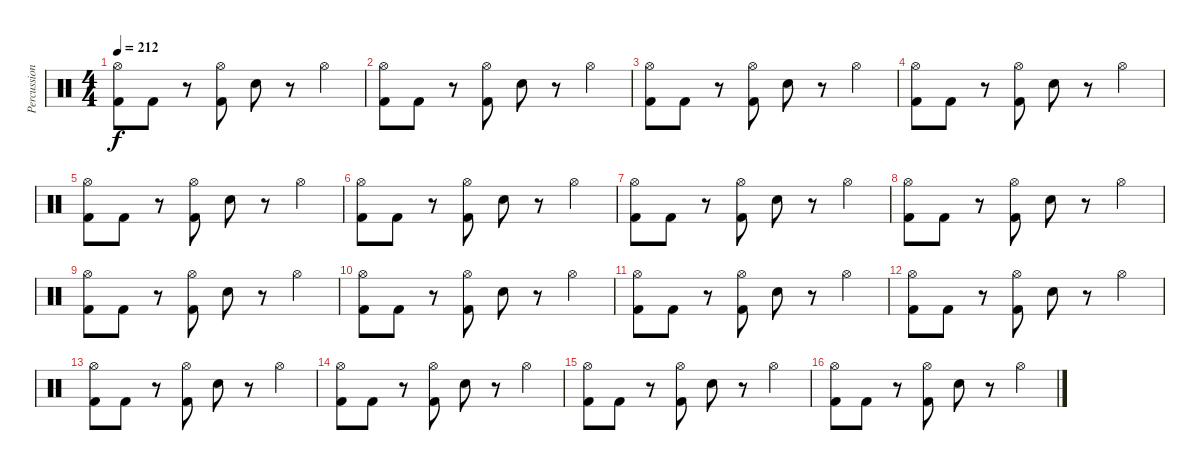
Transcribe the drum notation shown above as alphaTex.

\track ("Percussion" "Percussion") {instrument percussion}
\staff {score}
\articulation defaults
\ts (4 4)
\tempo 212
\clef neutral
\ks c
("Hi-Hat (open)" "Kick (hit) 2").8{dy f} "Kick (hit) 2".8 r.8 ("Hi-Hat (open)" "Kick (hit) 2").8 "Snare (hit) 2".8 r.8 "Hi-Hat (open)".4 |
("Hi-Hat (open)" "Kick (hit) 2").8 "Kick (hit) 2".8 r.8 ("Hi-Hat (open)" "Kick (hit) 2").8 "Snare (hit) 2".8 r.8 "Hi-Hat (open)".4 |
("Hi-Hat (open)" "Kick (hit) 2").8 "Kick (hit) 2".8 r.8 ("Hi-Hat (open)" "Kick (hit) 2").8 "Snare (hit) 2".8 r.8 "Hi-Hat (open)".4 |
("Hi-Hat (open)" "Kick (hit) 2").8 "Kick (hit) 2".8 r.8 ("Hi-Hat (open)" "Kick (hit) 2").8 "Snare (hit) 2".8 r.8 "Hi-Hat (open)".4 |
("Hi-Hat (open)" "Kick (hit) 2").8 "Kick (hit) 2".8 r.8 ("Hi-Hat (open)" "Kick (hit) 2").8 "Snare (hit) 2".8 r.8 "Hi-Hat (open)".4 |
("Hi-Hat (open)" "Kick (hit) 2").8 "Kick (hit) 2".8 r.8 ("Hi-Hat (open)" "Kick (hit) 2").8 "Snare (hit) 2".8 r.8 "Hi-Hat (open)".4 |
("Hi-Hat (open)" "Kick (hit) 2").8 "Kick (hit) 2".8 r.8 ("Hi-Hat (open)" "Kick (hit) 2").8 "Snare (hit) 2".8 r.8 "Hi-Hat (open)".4 |
("Hi-Hat (open)" "Kick (hit) 2").8 "Kick (hit) 2".8 r.8 ("Hi-Hat (open)" "Kick (hit) 2").8 "Snare (hit) 2".8 r.8 "Hi-Hat (open)".4 |
("Hi-Hat (open)" "Kick (hit) 2").8 "Kick (hit) 2".8 r.8 ("Hi-Hat (open)" "Kick (hit) 2").8 "Snare (hit) 2".8 r.8 "Hi-Hat (open)".4 |
("Hi-Hat (open)" "Kick (hit) 2").8 "Kick (hit) 2".8 r.8 ("Hi-Hat (open)" "Kick (hit) 2").8 "Snare (hit) 2".8 r.8 "Hi-Hat (open)".4 |
("Hi-Hat (open)" "Kick (hit) 2").8 "Kick (hit) 2".8 r.8 ("Hi-Hat (open)" "Kick (hit) 2").8 "Snare (hit) 2".8 r.8 "Hi-Hat (open)".4 |
("Hi-Hat (open)" "Kick (hit) 2").8 "Kick (hit) 2".8 r.8 ("Hi-Hat (open)" "Kick (hit) 2").8 "Snare (hit) 2".8 r.8 "Hi-Hat (open)".4 |
("Hi-Hat (open)" "Kick (hit) 2").8 "Kick (hit) 2".8 r.8 ("Hi-Hat (open)" "Kick (hit) 2").8 "Snare (hit) 2".8 r.8 "Hi-Hat (open)".4 |
("Hi-Hat (open)" "Kick (hit) 2").8 "Kick (hit) 2".8 r.8 ("Hi-Hat (open)" "Kick (hit) 2").8 "Snare (hit) 2".8 r.8 "Hi-Hat (open)".4 |
("Hi-Hat (open)" "Kick (hit) 2").8 "Kick (hit) 2".8 r.8 ("Hi-Hat (open)" "Kick (hit) 2").8 "Snare (hit) 2".8 r.8 "Hi-Hat (open)".4 |
("Hi-Hat (open)" "Kick (hit) 2").8 "Kick (hit) 2".8 r.8 ("Hi-Hat (open)" "Kick (hit) 2").8 "Snare (hit) 2".8 r.8 "Hi-Hat (open)".4
